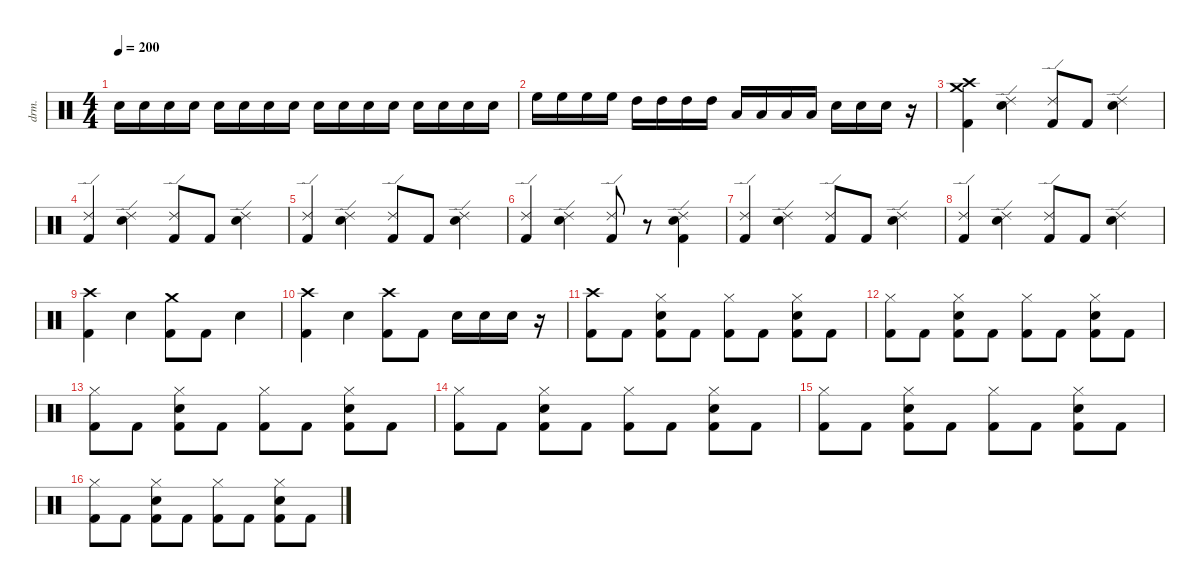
\defaultSystemsLayout 4
\hideDynamics
\bracketExtendMode nobrackets
\track ("Drums" "drm.") {instrument percussion}
\staff {score}
\articulation defaults
\ts (4 4)
\tempo 200
\clef neutral
\ks c "Snare (hit) 2".16{dy mf} "Snare (hit) 2".16 "Snare (hit) 2".16 "Snare (hit) 2".16 "Snare (hit) 2".16{dy f} "Snare (hit) 2".16 "Snare (hit) 2".16 "Snare (hit) 2".16 "Snare (hit) 2".16 "Snare (hit) 2".16 "Snare (hit) 2".16 "Snare (hit) 2".16 "Snare (hit) 2".16{dy fff} "Snare (hit) 2".16 "Snare (hit) 2".16 "Snare (hit) 2".16
|
"High Floor Tom (hit)".16{dy f} "High Floor Tom (hit)".16 "High Floor Tom (hit)".16{dy ff} "High Floor Tom (hit)".16 "High Tom (hit)".16 "High Tom (hit)".16 "High Tom (hit)".16{dy fff} "High Tom (hit)".16 "Low Tom (hit)".16{dy ff} "Low Tom (hit)".16 "Low Tom (hit)".16{dy fff} "Low Tom (hit)".16 "Snare (hit) 2".16 "Snare (hit) 2".16 "Snare (hit) 2".16 r.16 |
("Crash high (hit)" "Crash medium (hit)" "Kick (hit) 2").4{dy mf} ("Ride (edge) 2" "Snare (hit) 2").4{dy f} ("Ride (edge) 2" "Kick (hit) 2").8 "Kick (hit) 2".8 ("Ride (edge) 2" "Snare (hit) 2").4 |
("Ride (edge) 2" "Kick (hit) 2").4 ("Ride (edge) 2" "Snare (hit) 2").4 ("Ride (edge) 2" "Kick (hit) 2").8 "Kick (hit) 2".8 ("Ride (edge) 2" "Snare (hit) 2").4 |
("Ride (edge) 2" "Kick (hit) 2").4 ("Ride (edge) 2" "Snare (hit) 2").4 ("Ride (edge) 2" "Kick (hit) 2").8 "Kick (hit) 2".8 ("Ride (edge) 2" "Snare (hit) 2").4 |
("Ride (edge) 2" "Kick (hit) 2").4 ("Ride (edge) 2" "Snare (hit) 2").4 ("Ride (edge) 2" "Kick (hit) 2").8 r.8 ("Ride (edge) 2" "Snare (hit) 2" "Kick (hit) 2").4 |
("Ride (edge) 2" "Kick (hit) 2").4 ("Ride (edge) 2" "Snare (hit) 2").4 ("Ride (edge) 2" "Kick (hit) 2").8 "Kick (hit) 2".8 ("Ride (edge) 2" "Snare (hit) 2").4 |
("Ride (edge) 2" "Kick (hit) 2").4 ("Ride (edge) 2" "Snare (hit) 2").4 ("Ride (edge) 2" "Kick (hit) 2").8 "Kick (hit) 2".8 ("Ride (edge) 2" "Snare (hit) 2").4 |
("Crash high (hit)" "Kick (hit) 2").4 "Snare (hit) 2".4 ("Crash medium (hit)" "Kick (hit) 2").8 "Kick (hit) 2".8 "Snare (hit) 2".4 |
("Crash high (hit)" "Kick (hit) 2").4 "Snare (hit) 2".4 ("Crash high (hit)" "Kick (hit) 2").8 "Kick (hit) 2".8 "Snare (hit) 2".16{dy ff} "Snare (hit) 2".16 "Snare (hit) 2".16 r.16 |
("Crash high (hit)" "Kick (hit) 2").8 "Kick (hit) 2".8{dy f} ("Hi-Hat (closed)" "Snare (hit) 2" "Kick (hit) 2").8 "Kick (hit) 2".8 ("Hi-Hat (closed)" "Kick (hit) 2").8 "Kick (hit) 2".8 ("Hi-Hat (closed)" "Snare (hit) 2" "Kick (hit) 2").8 "Kick (hit) 2".8 |
("Hi-Hat (closed)" "Kick (hit) 2").8 "Kick (hit) 2".8 ("Hi-Hat (closed)" "Snare (hit) 2" "Kick (hit) 2").8 "Kick (hit) 2".8 ("Hi-Hat (closed)" "Kick (hit) 2").8 "Kick (hit) 2".8 ("Hi-Hat (closed)" "Snare (hit) 2" "Kick (hit) 2").8 "Kick (hit) 2".8 |
("Hi-Hat (closed)" "Kick (hit) 2").8 "Kick (hit) 2".8 ("Hi-Hat (closed)" "Snare (hit) 2" "Kick (hit) 2").8 "Kick (hit) 2".8 ("Hi-Hat (closed)" "Kick (hit) 2").8 "Kick (hit) 2".8 ("Hi-Hat (closed)" "Snare (hit) 2" "Kick (hit) 2").8 "Kick (hit) 2".8 |
("Hi-Hat (closed)" "Kick (hit) 2").8 "Kick (hit) 2".8 ("Hi-Hat (closed)" "Snare (hit) 2" "Kick (hit) 2").8 "Kick (hit) 2".8 ("Hi-Hat (closed)" "Kick (hit) 2").8 "Kick (hit) 2".8 ("Hi-Hat (closed)" "Snare (hit) 2" "Kick (hit) 2").8 "Kick (hit) 2".8 |
("Hi-Hat (closed)" "Kick (hit) 2").8 "Kick (hit) 2".8 ("Hi-Hat (closed)" "Snare (hit) 2" "Kick (hit) 2").8 "Kick (hit) 2".8 ("Hi-Hat (closed)" "Kick (hit) 2").8 "Kick (hit) 2".8 ("Hi-Hat (closed)" "Snare (hit) 2" "Kick (hit) 2").8 "Kick (hit) 2".8 |
("Hi-Hat (closed)" "Kick (hit) 2").8 "Kick (hit) 2".8 ("Hi-Hat (closed)" "Snare (hit) 2" "Kick (hit) 2").8 "Kick (hit) 2".8 ("Hi-Hat (closed)" "Kick (hit) 2").8 "Kick (hit) 2".8 ("Hi-Hat (closed)" "Snare (hit) 2" "Kick (hit) 2").8 "Kick (hit) 2".8
